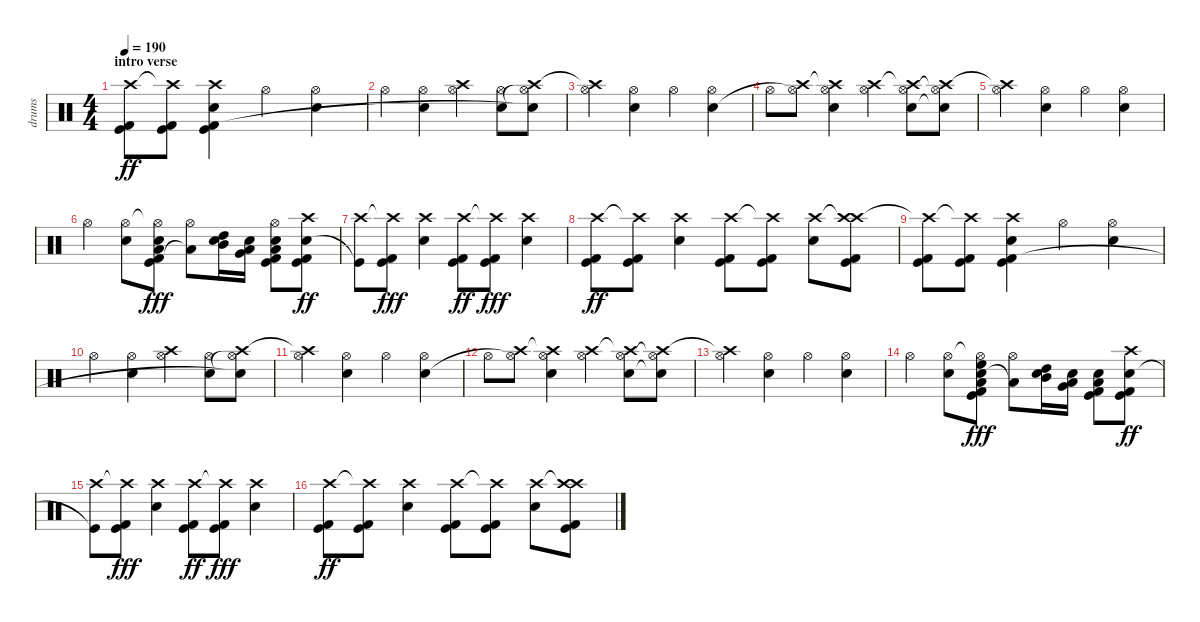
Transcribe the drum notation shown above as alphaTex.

\track ("drums" "drums") {instrument percussion}
\staff {score}
\articulation defaults
\ts (4 4)
\section ("" "intro verse")
\tempo 190
\clef neutral
\ks c
("Crash high (hit)"{t} "Kick (hit) 2" "Kick (hit)").8{dy ff} ("Crash high (hit)"{t} "Kick (hit) 2" "Kick (hit)").8 ("Crash high (hit)" "Electric Snare (hit)" "Kick (hit) 2" "Kick (hit)").4 "Hi-Hat (open)".4 ("Hi-Hat (open)" "Electric Snare (hit)").4 |
"Hi-Hat (open)".4 ("Hi-Hat (open)" "Electric Snare (hit)").4 ("Crash high (hit)" "Hi-Hat (open)").4 ("Hi-Hat (open)" "Electric Snare (hit)").8 ("Crash high (hit)" "Hi-Hat (open)"{t} "Electric Snare (hit)"{t}).8 |
("Crash high (hit)"{t} "Hi-Hat (open)").4 ("Hi-Hat (open)" "Electric Snare (hit)").4 "Hi-Hat (open)".4 ("Hi-Hat (open)" "Electric Snare (hit)").4 |
"Hi-Hat (open)".8 ("Crash high (hit)" "Hi-Hat (open)"{t}).8 ("Crash high (hit)"{t} "Hi-Hat (open)" "Electric Snare (hit)").4 ("Crash high (hit)" "Hi-Hat (open)").4 ("Crash high (hit)"{t} "Hi-Hat (open)" "Electric Snare (hit)").8 ("Crash high (hit)" "Hi-Hat (open)"{t} "Electric Snare (hit)"{t}).8 |
("Crash high (hit)"{t} "Hi-Hat (open)").4 ("Hi-Hat (open)" "Electric Snare (hit)").4 "Hi-Hat (open)".4 ("Hi-Hat (open)" "Electric Snare (hit)").4 |
"Hi-Hat (open)".4 ("Hi-Hat (open)" "Electric Snare (hit)").8 ("Hi-Hat (open)"{t} "Kick (hit) 2" "Electric Snare (hit)" "Low Tom (hit)" "Kick (hit)").8{dy fff} ("Hi-Hat (open)" "Low Tom (hit)"{t}).8 ("Electric Snare (hit)" "High Tom (hit)" "Mid Tom (hit)").16 ("Electric Snare (hit)" "Very Low Tom (hit)" "Low Floor Tom (hit)").16 ("Electric Snare (hit)" "Hi-Hat (open)" "Kick (hit) 2" "Low Floor Tom (hit)" "Kick (hit)").8 ("Crash high (hit)" "Electric Snare (hit)" "Kick (hit) 2" "Kick (hit)").8{dy ff} |
("Crash high (hit)" "Kick (hit)"{t}).8 ("Crash high (hit)"{t} "Kick (hit) 2" "Kick (hit)").8{dy fff} ("Crash high (hit)" "Electric Snare (hit)").4 ("Crash high (hit)" "Kick (hit) 2" "Kick (hit)").8{dy ff} ("Crash high (hit)"{t} "Kick (hit) 2" "Kick (hit)").8{dy fff} ("Crash high (hit)" "Electric Snare (hit)").4 |
("Crash high (hit)" "Kick (hit) 2" "Kick (hit)").8{dy ff} ("Crash high (hit)"{t} "Kick (hit) 2" "Kick (hit)").8 ("Crash high (hit)" "Electric Snare (hit)").4 ("Crash high (hit)" "Kick (hit) 2" "Kick (hit)").8 ("Crash high (hit)"{t} "Kick (hit) 2" "Kick (hit)").8 ("Crash high (hit)" "Electric Snare (hit)").8 ("Crash high (hit)"{t} "Crash high (hit)" "Kick (hit) 2" "Kick (hit)").8 |
("Crash high (hit)"{t} "Kick (hit) 2" "Kick (hit)").8 ("Crash high (hit)"{t} "Kick (hit) 2" "Kick (hit)").8 ("Crash high (hit)" "Electric Snare (hit)" "Kick (hit) 2" "Kick (hit)").4 "Hi-Hat (open)".4 ("Hi-Hat (open)" "Electric Snare (hit)").4 |
"Hi-Hat (open)".4 ("Hi-Hat (open)" "Electric Snare (hit)").4 ("Crash high (hit)" "Hi-Hat (open)").4 ("Hi-Hat (open)" "Electric Snare (hit)").8 ("Crash high (hit)" "Hi-Hat (open)"{t} "Electric Snare (hit)"{t}).8 |
("Crash high (hit)"{t} "Hi-Hat (open)").4 ("Hi-Hat (open)" "Electric Snare (hit)").4 "Hi-Hat (open)".4 ("Hi-Hat (open)" "Electric Snare (hit)").4 |
"Hi-Hat (open)".8 ("Crash high (hit)" "Hi-Hat (open)"{t}).8 ("Crash high (hit)"{t} "Hi-Hat (open)" "Electric Snare (hit)").4 ("Crash high (hit)" "Hi-Hat (open)").4 ("Crash high (hit)"{t} "Hi-Hat (open)" "Electric Snare (hit)").8 ("Crash high (hit)" "Hi-Hat (open)"{t} "Electric Snare (hit)"{t}).8 |
("Crash high (hit)"{t} "Hi-Hat (open)").4 ("Hi-Hat (open)" "Electric Snare (hit)").4 "Hi-Hat (open)".4 ("Hi-Hat (open)" "Electric Snare (hit)").4 |
"Hi-Hat (open)".4 ("Hi-Hat (open)" "Electric Snare (hit)").8 ("Hi-Hat (open)"{t} "Electric Snare (hit)" "Kick (hit) 2" "High Floor Tom (hit)" "Low Tom (hit)" "Kick (hit)").8{dy fff} ("Hi-Hat (open)" "Low Tom (hit)"{t}).8 ("Electric Snare (hit)" "High Tom (hit)" "Mid Tom (hit)").16 ("Electric Snare (hit)" "Very Low Tom (hit)" "Low Floor Tom (hit)").16 ("Electric Snare (hit)" "Kick (hit) 2" "Low Floor Tom (hit)" "Kick (hit)").8 ("Crash high (hit)" "Electric Snare (hit)" "Kick (hit) 2" "Kick (hit)").8{dy ff} |
("Crash high (hit)" "Kick (hit)"{t}).8 ("Crash high (hit)"{t} "Kick (hit) 2" "Kick (hit)").8{dy fff} ("Crash high (hit)" "Electric Snare (hit)").4 ("Crash high (hit)" "Kick (hit) 2" "Kick (hit)").8{dy ff} ("Crash high (hit)"{t} "Kick (hit) 2" "Kick (hit)").8{dy fff} ("Crash high (hit)" "Electric Snare (hit)").4 |
("Crash high (hit)" "Kick (hit) 2" "Kick (hit)").8{dy ff} ("Crash high (hit)"{t} "Kick (hit) 2" "Kick (hit)").8 ("Crash high (hit)" "Electric Snare (hit)").4 ("Crash high (hit)" "Kick (hit) 2" "Kick (hit)").8 ("Crash high (hit)"{t} "Kick (hit) 2" "Kick (hit)").8 ("Crash high (hit)" "Electric Snare (hit)").8 ("Crash high (hit)"{t} "Crash high (hit)" "Kick (hit) 2" "Kick (hit)").8
